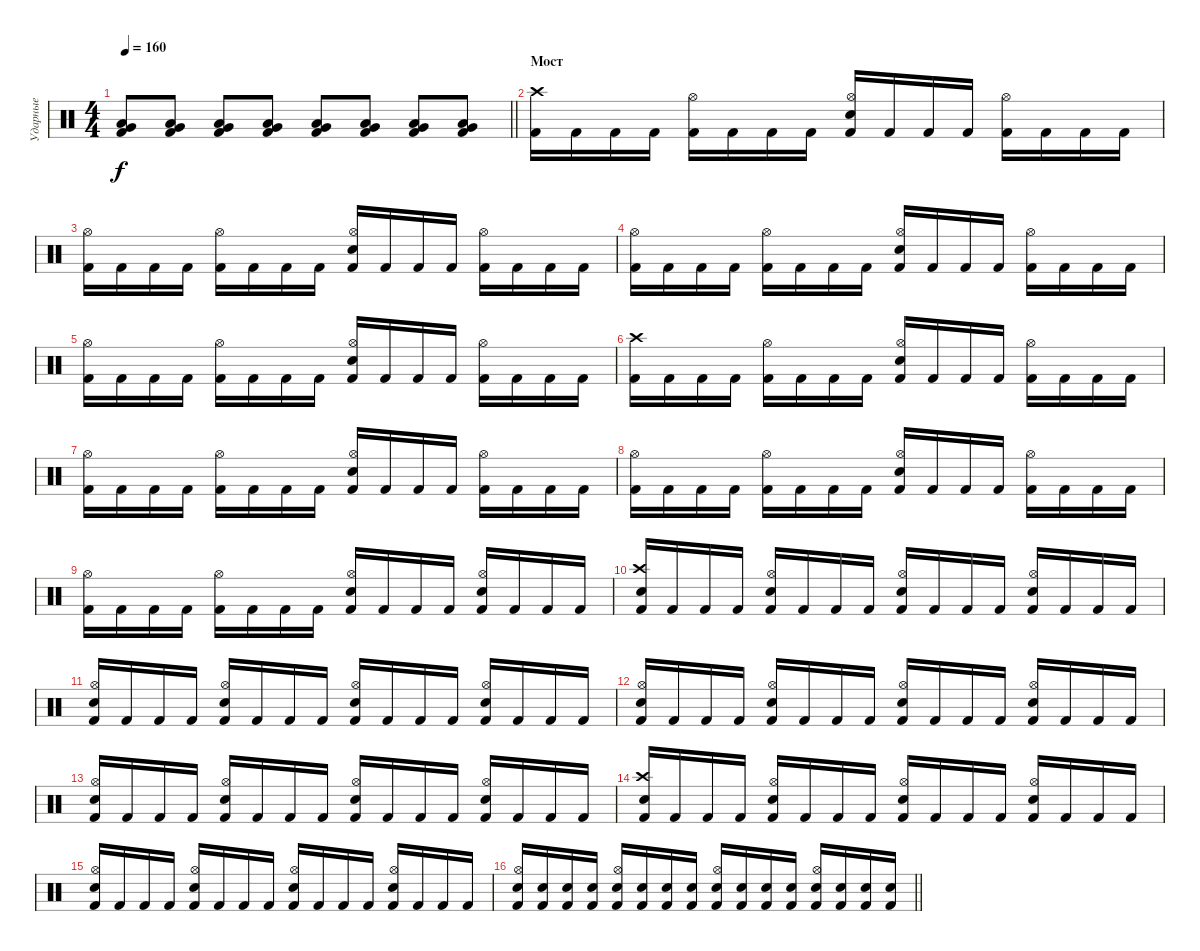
\track ("Ударные" "Ударные") {instrument percussion}
\staff {score}
\articulation defaults
\ts (4 4)
\tempo 160
\clef neutral
\barLineRight lightlight
\ks c
("Kick (hit) 2" "Low Floor Tom (hit)" "Very Low Tom (hit)").8{dy f} ("Kick (hit) 2" "Low Floor Tom (hit)" "Very Low Tom (hit)").8 ("Kick (hit) 2" "Low Floor Tom (hit)" "Very Low Tom (hit)").8 ("Kick (hit) 2" "Low Floor Tom (hit)" "Very Low Tom (hit)").8 ("Kick (hit) 2" "Low Floor Tom (hit)" "Very Low Tom (hit)").8 ("Kick (hit) 2" "Low Floor Tom (hit)" "Very Low Tom (hit)").8 ("Kick (hit) 2" "Low Floor Tom (hit)" "Very Low Tom (hit)").8 ("Kick (hit) 2" "Low Floor Tom (hit)" "Very Low Tom (hit)").8 |
\section ("" "Мост")
("Kick (hit) 2" "Crash high (hit)").16 "Kick (hit) 2".16 "Kick (hit) 2".16 "Kick (hit) 2".16 ("Hi-Hat (open)" "Kick (hit) 2").16 "Kick (hit) 2".16 "Kick (hit) 2".16 "Kick (hit) 2".16 ("Hi-Hat (open)" "Snare (hit) 2" "Kick (hit) 2").16 "Kick (hit) 2".16 "Kick (hit) 2".16 "Kick (hit) 2".16 ("Kick (hit) 2" "Hi-Hat (open)").16 "Kick (hit) 2".16 "Kick (hit) 2".16 "Kick (hit) 2".16 |
("Kick (hit) 2" "Hi-Hat (open)").16 "Kick (hit) 2".16 "Kick (hit) 2".16 "Kick (hit) 2".16 ("Kick (hit) 2" "Hi-Hat (open)").16 "Kick (hit) 2".16 "Kick (hit) 2".16 "Kick (hit) 2".16 ("Kick (hit) 2" "Hi-Hat (open)" "Snare (hit) 2").16 "Kick (hit) 2".16 "Kick (hit) 2".16 "Kick (hit) 2".16 ("Hi-Hat (open)" "Kick (hit) 2").16 "Kick (hit) 2".16 "Kick (hit) 2".16 "Kick (hit) 2".16 |
("Hi-Hat (open)" "Kick (hit) 2").16 "Kick (hit) 2".16 "Kick (hit) 2".16 "Kick (hit) 2".16 ("Kick (hit) 2" "Hi-Hat (open)").16 "Kick (hit) 2".16 "Kick (hit) 2".16 "Kick (hit) 2".16 ("Hi-Hat (open)" "Kick (hit) 2" "Snare (hit) 2").16 "Kick (hit) 2".16 "Kick (hit) 2".16 "Kick (hit) 2".16 ("Hi-Hat (open)" "Kick (hit) 2").16 "Kick (hit) 2".16 "Kick (hit) 2".16 "Kick (hit) 2".16 |
("Kick (hit) 2" "Hi-Hat (open)").16 "Kick (hit) 2".16 "Kick (hit) 2".16 "Kick (hit) 2".16 ("Hi-Hat (open)" "Kick (hit) 2").16 "Kick (hit) 2".16 "Kick (hit) 2".16 "Kick (hit) 2".16 ("Hi-Hat (open)" "Snare (hit) 2" "Kick (hit) 2").16 "Kick (hit) 2".16 "Kick (hit) 2".16 "Kick (hit) 2".16 ("Kick (hit) 2" "Hi-Hat (open)").16 "Kick (hit) 2".16 "Kick (hit) 2".16 "Kick (hit) 2".16 |
("Crash high (hit)" "Kick (hit) 2").16 "Kick (hit) 2".16 "Kick (hit) 2".16 "Kick (hit) 2".16 ("Hi-Hat (open)" "Kick (hit) 2").16 "Kick (hit) 2".16 "Kick (hit) 2".16 "Kick (hit) 2".16 ("Hi-Hat (open)" "Snare (hit) 2" "Kick (hit) 2").16 "Kick (hit) 2".16 "Kick (hit) 2".16 "Kick (hit) 2".16 ("Hi-Hat (open)" "Kick (hit) 2").16 "Kick (hit) 2".16 "Kick (hit) 2".16 "Kick (hit) 2".16 |
("Hi-Hat (open)" "Kick (hit) 2").16 "Kick (hit) 2".16 "Kick (hit) 2".16 "Kick (hit) 2".16 ("Hi-Hat (open)" "Kick (hit) 2").16 "Kick (hit) 2".16 "Kick (hit) 2".16 "Kick (hit) 2".16 ("Hi-Hat (open)" "Snare (hit) 2" "Kick (hit) 2").16 "Kick (hit) 2".16 "Kick (hit) 2".16 "Kick (hit) 2".16 ("Hi-Hat (open)" "Kick (hit) 2").16 "Kick (hit) 2".16 "Kick (hit) 2".16 "Kick (hit) 2".16 |
("Hi-Hat (open)" "Kick (hit) 2").16 "Kick (hit) 2".16 "Kick (hit) 2".16 "Kick (hit) 2".16 ("Hi-Hat (open)" "Kick (hit) 2").16 "Kick (hit) 2".16 "Kick (hit) 2".16 "Kick (hit) 2".16 ("Hi-Hat (open)" "Snare (hit) 2" "Kick (hit) 2").16 "Kick (hit) 2".16 "Kick (hit) 2".16 "Kick (hit) 2".16 ("Hi-Hat (open)" "Kick (hit) 2").16 "Kick (hit) 2".16 "Kick (hit) 2".16 "Kick (hit) 2".16 |
("Hi-Hat (open)" "Kick (hit) 2").16 "Kick (hit) 2".16 "Kick (hit) 2".16 "Kick (hit) 2".16 ("Hi-Hat (open)" "Kick (hit) 2").16 "Kick (hit) 2".16 "Kick (hit) 2".16 "Kick (hit) 2".16 ("Hi-Hat (open)" "Snare (hit) 2" "Kick (hit) 2").16 "Kick (hit) 2".16 "Kick (hit) 2".16 "Kick (hit) 2".16 ("Snare (hit) 2" "Hi-Hat (open)" "Kick (hit) 2").16 "Kick (hit) 2".16 "Kick (hit) 2".16 "Kick (hit) 2".16 |
("Snare (hit) 2" "Crash high (hit)" "Kick (hit) 2").16 "Kick (hit) 2".16 "Kick (hit) 2".16 "Kick (hit) 2".16 ("Snare (hit) 2" "Hi-Hat (open)" "Kick (hit) 2").16 "Kick (hit) 2".16 "Kick (hit) 2".16 "Kick (hit) 2".16 ("Hi-Hat (open)" "Snare (hit) 2" "Kick (hit) 2").16 "Kick (hit) 2".16 "Kick (hit) 2".16 "Kick (hit) 2".16 ("Snare (hit) 2" "Hi-Hat (open)" "Kick (hit) 2").16 "Kick (hit) 2".16 "Kick (hit) 2".16 "Kick (hit) 2".16 |
("Snare (hit) 2" "Hi-Hat (open)" "Kick (hit) 2").16 "Kick (hit) 2".16 "Kick (hit) 2".16 "Kick (hit) 2".16 ("Snare (hit) 2" "Hi-Hat (open)" "Kick (hit) 2").16 "Kick (hit) 2".16 "Kick (hit) 2".16 "Kick (hit) 2".16 ("Hi-Hat (open)" "Snare (hit) 2" "Kick (hit) 2").16 "Kick (hit) 2".16 "Kick (hit) 2".16 "Kick (hit) 2".16 ("Snare (hit) 2" "Hi-Hat (open)" "Kick (hit) 2").16 "Kick (hit) 2".16 "Kick (hit) 2".16 "Kick (hit) 2".16 |
("Snare (hit) 2" "Hi-Hat (open)" "Kick (hit) 2").16 "Kick (hit) 2".16 "Kick (hit) 2".16 "Kick (hit) 2".16 ("Snare (hit) 2" "Hi-Hat (open)" "Kick (hit) 2").16 "Kick (hit) 2".16 "Kick (hit) 2".16 "Kick (hit) 2".16 ("Hi-Hat (open)" "Snare (hit) 2" "Kick (hit) 2").16 "Kick (hit) 2".16 "Kick (hit) 2".16 "Kick (hit) 2".16 ("Snare (hit) 2" "Hi-Hat (open)" "Kick (hit) 2").16 "Kick (hit) 2".16 "Kick (hit) 2".16 "Kick (hit) 2".16 |
("Snare (hit) 2" "Hi-Hat (open)" "Kick (hit) 2").16 "Kick (hit) 2".16 "Kick (hit) 2".16 "Kick (hit) 2".16 ("Snare (hit) 2" "Hi-Hat (open)" "Kick (hit) 2").16 "Kick (hit) 2".16 "Kick (hit) 2".16 "Kick (hit) 2".16 ("Hi-Hat (open)" "Snare (hit) 2" "Kick (hit) 2").16 "Kick (hit) 2".16 "Kick (hit) 2".16 "Kick (hit) 2".16 ("Snare (hit) 2" "Hi-Hat (open)" "Kick (hit) 2").16 "Kick (hit) 2".16 "Kick (hit) 2".16 "Kick (hit) 2".16 |
("Snare (hit) 2" "Crash high (hit)" "Kick (hit) 2").16 "Kick (hit) 2".16 "Kick (hit) 2".16 "Kick (hit) 2".16 ("Snare (hit) 2" "Hi-Hat (open)" "Kick (hit) 2").16 "Kick (hit) 2".16 "Kick (hit) 2".16 "Kick (hit) 2".16 ("Hi-Hat (open)" "Snare (hit) 2" "Kick (hit) 2").16 "Kick (hit) 2".16 "Kick (hit) 2".16 "Kick (hit) 2".16 ("Snare (hit) 2" "Hi-Hat (open)" "Kick (hit) 2").16 "Kick (hit) 2".16 "Kick (hit) 2".16 "Kick (hit) 2".16 |
("Snare (hit) 2" "Hi-Hat (open)" "Kick (hit) 2").16 "Kick (hit) 2".16 "Kick (hit) 2".16 "Kick (hit) 2".16 ("Snare (hit) 2" "Hi-Hat (open)" "Kick (hit) 2").16 "Kick (hit) 2".16 "Kick (hit) 2".16 "Kick (hit) 2".16 ("Hi-Hat (open)" "Snare (hit) 2" "Kick (hit) 2").16 "Kick (hit) 2".16 "Kick (hit) 2".16 "Kick (hit) 2".16 ("Snare (hit) 2" "Hi-Hat (open)" "Kick (hit) 2").16 "Kick (hit) 2".16 "Kick (hit) 2".16 "Kick (hit) 2".16 |
\barLineRight lightlight
("Hi-Hat (open)" "Kick (hit) 2" "Snare (hit) 2").16 ("Snare (hit) 2" "Kick (hit) 2").16 ("Snare (hit) 2" "Kick (hit) 2").16 ("Snare (hit) 2" "Kick (hit) 2").16 ("Kick (hit) 2" "Hi-Hat (open)" "Snare (hit) 2").16 ("Kick (hit) 2" "Snare (hit) 2").16 ("Snare (hit) 2" "Kick (hit) 2").16 ("Kick (hit) 2" "Snare (hit) 2").16 ("Kick (hit) 2" "Hi-Hat (open)" "Snare (hit) 2").16 ("Snare (hit) 2" "Kick (hit) 2").16 ("Snare (hit) 2" "Kick (hit) 2").16 ("Kick (hit) 2" "Snare (hit) 2").16 ("Hi-Hat (open)" "Snare (hit) 2" "Kick (hit) 2").16 ("Kick (hit) 2" "Snare (hit) 2").16 ("Snare (hit) 2" "Kick (hit) 2").16 ("Snare (hit) 2" "Kick (hit) 2").16
